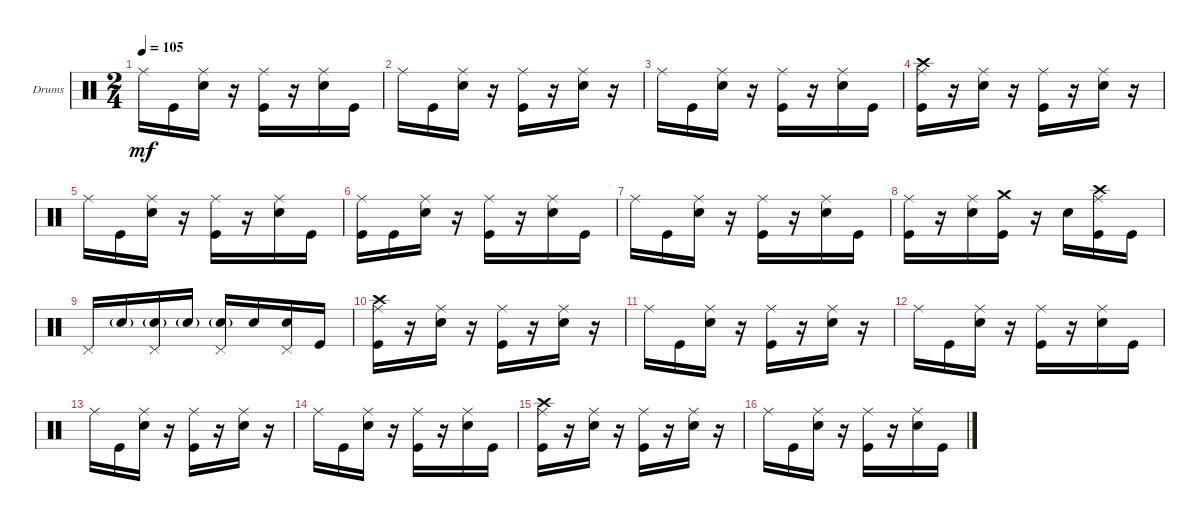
\defaultSystemsLayout 4
\bracketExtendMode groupsimilarinstruments
\firstSystemTrackNameOrientation horizontal
\otherSystemsTrackNameOrientation horizontal
\track ("Godd" "Drums") {instrument percussion}
\staff {score}
\articulation defaults
\ts (2 4)
\tempo 105
\clef neutral
\ks c "Ride (middle)".16{dy mf} "Kick (hit)".16
("Ride (middle)" "Snare (hit) 2").16 r.16 ("Ride (middle)" "Kick (hit)").16 r.16 ("Ride (middle)" "Snare (hit) 2").16 "Kick (hit)".16 |
"Ride (middle)".16 "Kick (hit)".16 ("Ride (middle)" "Snare (hit) 2").16 r.16 ("Ride (middle)" "Kick (hit)").16 r.16 ("Ride (middle)" "Snare (hit) 2").16 r.16 |
"Ride (middle)".16 "Kick (hit)".16 ("Ride (middle)" "Snare (hit) 2").16 r.16 ("Ride (middle)" "Kick (hit)").16 r.16 ("Ride (middle)" "Snare (hit) 2").16 "Kick (hit)".16 |
("Ride (middle)" "Crash high (hit)" "Kick (hit)").16 r.16 ("Ride (middle)" "Snare (hit) 2").16 r.16 ("Ride (middle)" "Kick (hit)").16 r.16 ("Ride (middle)" "Snare (hit) 2").16 r.16 |
"Ride (middle)".16 "Kick (hit)".16 ("Ride (middle)" "Snare (hit) 2").16 r.16 ("Ride (middle)" "Kick (hit)").16 r.16 ("Ride (middle)" "Snare (hit) 2").16 "Kick (hit)".16 |
("Ride (middle)" "Kick (hit)").16 "Kick (hit)".16 ("Ride (middle)" "Snare (hit) 2").16 r.16 ("Ride (middle)" "Kick (hit)").16 r.16 ("Ride (middle)" "Snare (hit) 2").16 "Kick (hit)".16 |
"Ride (middle)".16 "Kick (hit)".16 ("Ride (middle)" "Snare (hit) 2").16 r.16 ("Ride (middle)" "Kick (hit)").16 r.16 ("Ride (middle)" "Snare (hit) 2").16 "Kick (hit)".16 |
("Ride (middle)" "Kick (hit)").16 r.16 ("Ride (middle)" "Snare (hit) 2").16 ("Kick (hit)" "Crash medium (hit)").16 r.16 "Snare (hit) 2".16 ("Ride (middle)" "Crash high (hit)" "Kick (hit)").16 "Kick (hit)".16 |
"Pedal Hi-Hat (hit)".16 "Snare (hit) 2"{g}.16 ("Pedal Hi-Hat (hit)" "Snare (hit) 2"{g}).16 "Snare (hit) 2"{g}.16 ("Pedal Hi-Hat (hit)" "Snare (hit) 2"{g}).16 "Snare (hit) 2".16 ("Pedal Hi-Hat (hit)" "Snare (hit) 2").16 "Kick (hit)".16 |
("Ride (middle)" "Crash high (hit)" "Kick (hit)").16 r.16 ("Ride (middle)" "Snare (hit) 2").16 r.16 ("Ride (middle)" "Kick (hit)").16 r.16 ("Ride (middle)" "Snare (hit) 2").16 r.16 |
"Ride (middle)".16 "Kick (hit)".16 ("Ride (middle)" "Snare (hit) 2").16 r.16 ("Ride (middle)" "Kick (hit)").16 r.16 ("Ride (middle)" "Snare (hit) 2").16 r.16 |
"Ride (middle)".16 "Kick (hit)".16 ("Ride (middle)" "Snare (hit) 2").16 r.16 ("Ride (middle)" "Kick (hit)").16 r.16 ("Ride (middle)" "Snare (hit) 2").16 "Kick (hit)".16 |
"Ride (middle)".16 "Kick (hit)".16 ("Ride (middle)" "Snare (hit) 2").16 r.16 ("Ride (middle)" "Kick (hit)").16 r.16 ("Ride (middle)" "Snare (hit) 2").16 r.16 |
"Ride (middle)".16 "Kick (hit)".16 ("Ride (middle)" "Snare (hit) 2").16 r.16 ("Ride (middle)" "Kick (hit)").16 r.16 ("Ride (middle)" "Snare (hit) 2").16 "Kick (hit)".16 |
("Ride (middle)" "Crash high (hit)" "Kick (hit)").16 r.16 ("Ride (middle)" "Snare (hit) 2").16 r.16 ("Ride (middle)" "Kick (hit)").16 r.16 ("Ride (middle)" "Snare (hit) 2").16 r.16 |
"Ride (middle)".16 "Kick (hit)".16 ("Ride (middle)" "Snare (hit) 2").16 r.16 ("Ride (middle)" "Kick (hit)").16 r.16 ("Ride (middle)" "Snare (hit) 2").16 "Kick (hit)".16
